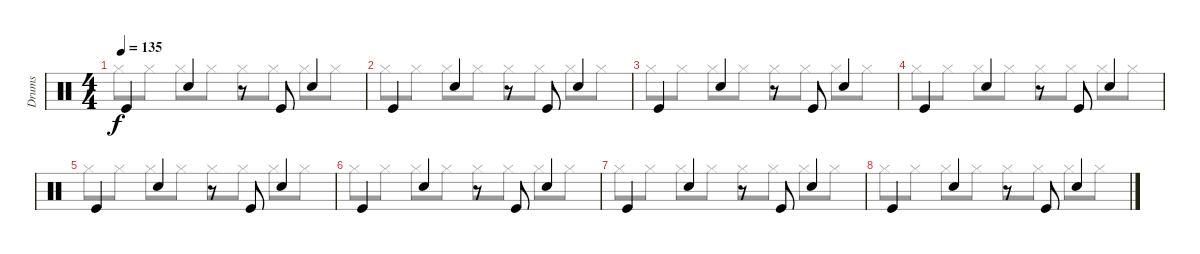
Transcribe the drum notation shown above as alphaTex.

\track ("Drums" "Drums") {instrument percussion}
\staff {score}
\articulation defaults
\voice
\ts (4 4)
\tempo 135
\clef neutral
\ks c "Kick (hit)".4{dy f} "Snare (hit) 2".4
r.8 "Kick (hit)".8 "Snare (hit) 2".4 |
"Kick (hit)".4 "Snare (hit) 2".4 r.8 "Kick (hit)".8 "Snare (hit) 2".4 |
"Kick (hit)".4 "Snare (hit) 2".4 r.8 "Kick (hit)".8 "Snare (hit) 2".4 |
"Kick (hit)".4 "Snare (hit) 2".4 r.8 "Kick (hit)".8 "Snare (hit) 2".4 |
"Kick (hit)".4 "Snare (hit) 2".4 r.8 "Kick (hit)".8 "Snare (hit) 2".4 |
"Kick (hit)".4 "Snare (hit) 2".4 r.8 "Kick (hit)".8 "Snare (hit) 2".4 |
"Kick (hit)".4 "Snare (hit) 2".4 r.8 "Kick (hit)".8 "Snare (hit) 2".4 |
"Kick (hit)".4 "Snare (hit) 2".4 r.8 "Kick (hit)".8 "Snare (hit) 2".4 |
|
|
|
|
|
|
|
\voice
\clef neutral
\ottava regular
\simile none
\ks c "Hi-Hat (closed)".8{dy f} "Hi-Hat (closed)".8 "Hi-Hat (closed)".8 "Hi-Hat (closed)".8 "Hi-Hat (closed)".8 "Hi-Hat (closed)".8 "Hi-Hat (closed)".8 "Hi-Hat (closed)".8
|
"Hi-Hat (closed)".8 "Hi-Hat (closed)".8 "Hi-Hat (closed)".8 "Hi-Hat (closed)".8 "Hi-Hat (closed)".8 "Hi-Hat (closed)".8 "Hi-Hat (closed)".8 "Hi-Hat (closed)".8 |
"Hi-Hat (closed)".8 "Hi-Hat (closed)".8 "Hi-Hat (closed)".8 "Hi-Hat (closed)".8 "Hi-Hat (closed)".8 "Hi-Hat (closed)".8 "Hi-Hat (closed)".8 "Hi-Hat (closed)".8 |
"Hi-Hat (closed)".8 "Hi-Hat (closed)".8 "Hi-Hat (closed)".8 "Hi-Hat (closed)".8 "Hi-Hat (closed)".8 "Hi-Hat (closed)".8 "Hi-Hat (closed)".8 "Hi-Hat (closed)".8 |
"Hi-Hat (closed)".8 "Hi-Hat (closed)".8 "Hi-Hat (closed)".8 "Hi-Hat (closed)".8 "Hi-Hat (closed)".8 "Hi-Hat (closed)".8 "Hi-Hat (closed)".8 "Hi-Hat (closed)".8 |
"Hi-Hat (closed)".8 "Hi-Hat (closed)".8 "Hi-Hat (closed)".8 "Hi-Hat (closed)".8 "Hi-Hat (closed)".8 "Hi-Hat (closed)".8 "Hi-Hat (closed)".8 "Hi-Hat (closed)".8 |
"Hi-Hat (closed)".8 "Hi-Hat (closed)".8 "Hi-Hat (closed)".8 "Hi-Hat (closed)".8 "Hi-Hat (closed)".8 "Hi-Hat (closed)".8 "Hi-Hat (closed)".8 "Hi-Hat (closed)".8 |
"Hi-Hat (closed)".8 "Hi-Hat (closed)".8 "Hi-Hat (closed)".8 "Hi-Hat (closed)".8 "Hi-Hat (closed)".8 "Hi-Hat (closed)".8 "Hi-Hat (closed)".8 "Hi-Hat (closed)".8 |
|
|
|
|
|
|
|
